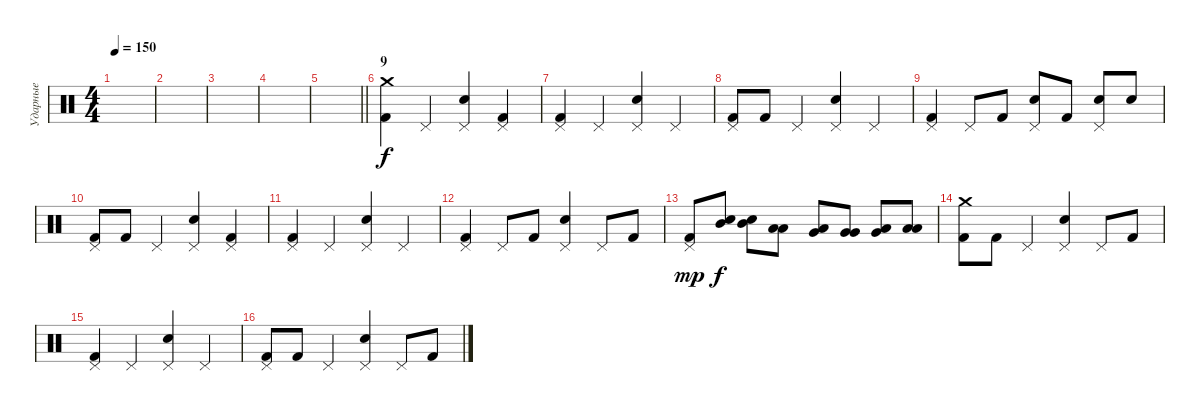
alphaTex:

\track ("Ударные" "Ударные") {mute instrument percussion}
\staff {score}
\articulation defaults
\ts (4 4)
\tempo 150
\clef neutral
\ks c
|
|
|
|
\barLineRight lightlight
|
\section ("" "9")
("Crash medium (hit)" "Kick (hit) 2").4 "Pedal Hi-Hat (hit)".4 ("Pedal Hi-Hat (hit)" "Snare (hit) 2").4 ("Pedal Hi-Hat (hit)" "Kick (hit) 2").4 |
("Pedal Hi-Hat (hit)" "Kick (hit) 2").4 "Pedal Hi-Hat (hit)".4 ("Pedal Hi-Hat (hit)" "Snare (hit) 2").4 "Pedal Hi-Hat (hit)".4 |
("Pedal Hi-Hat (hit)" "Kick (hit) 2").8 "Kick (hit) 2".8 "Pedal Hi-Hat (hit)".4 ("Pedal Hi-Hat (hit)" "Snare (hit) 2").4 "Pedal Hi-Hat (hit)".4 |
("Pedal Hi-Hat (hit)" "Kick (hit) 2").4 "Pedal Hi-Hat (hit)".8 "Kick (hit) 2".8 ("Pedal Hi-Hat (hit)" "Snare (hit) 2").8 "Kick (hit) 2".8 ("Pedal Hi-Hat (hit)" "Snare (hit) 2").8 "Snare (hit) 2".8 |
("Pedal Hi-Hat (hit)" "Kick (hit) 2").8 "Kick (hit) 2".8 "Pedal Hi-Hat (hit)".4 ("Pedal Hi-Hat (hit)" "Snare (hit) 2").4 ("Pedal Hi-Hat (hit)" "Kick (hit) 2").4 |
("Pedal Hi-Hat (hit)" "Kick (hit) 2").4 "Pedal Hi-Hat (hit)".4 ("Pedal Hi-Hat (hit)" "Snare (hit) 2").4 "Pedal Hi-Hat (hit)".4 |
("Pedal Hi-Hat (hit)" "Kick (hit) 2").4 "Pedal Hi-Hat (hit)".8 "Kick (hit) 2".8 ("Pedal Hi-Hat (hit)" "Snare (hit) 2").4 "Pedal Hi-Hat (hit)".8 "Kick (hit) 2".8 |
("Pedal Hi-Hat (hit)" "Kick (hit) 2").8{dy mp} ("Mid Tom (hit)" "Snare (hit) 2").8{dy f} ("Mid Tom (hit)" "Snare (hit) 2").8 ("Low Tom (hit)" "Low Tom (hit)").8 ("Low Tom (hit)" "Very Low Tom (hit)").8 ("Very Low Tom (hit)" "Very Low Tom (hit)").8 ("Very Low Tom (hit)" "Low Floor Tom (hit)").8 ("Low Floor Tom (hit)" "Low Floor Tom (hit)").8 |
("Crash medium (hit)" "Kick (hit) 2").8 "Kick (hit) 2".8 "Pedal Hi-Hat (hit)".4 ("Pedal Hi-Hat (hit)" "Snare (hit) 2").4 "Pedal Hi-Hat (hit)".8 "Kick (hit) 2".8 |
("Pedal Hi-Hat (hit)" "Kick (hit) 2").4 "Pedal Hi-Hat (hit)".4 ("Pedal Hi-Hat (hit)" "Snare (hit) 2").4 "Pedal Hi-Hat (hit)".4 |
("Pedal Hi-Hat (hit)" "Kick (hit) 2").8 "Kick (hit) 2".8 "Pedal Hi-Hat (hit)".4 ("Pedal Hi-Hat (hit)" "Snare (hit) 2").4 "Pedal Hi-Hat (hit)".8 "Kick (hit) 2".8
